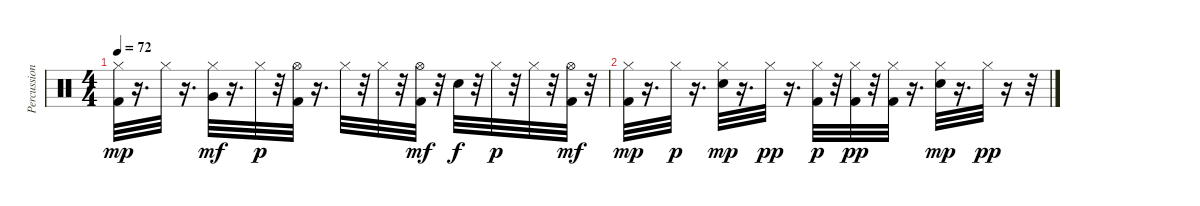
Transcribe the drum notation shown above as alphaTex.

\track ("Percussion" "Percussion") {instrument percussion}
\staff {score}
\articulation defaults
\ts (4 4)
\tempo 72
\clef neutral
\ks c
("Hi-Hat (closed)" "Kick (hit) 2").32{dy mp} r.16{d} "Hi-Hat (closed)".32 r.16{d} ("Very Low Tom (hit)" "Hi-Hat (closed)").32{dy mf} r.16{d} "Hi-Hat (closed)".32{dy p} r.32 ("Hi-Hat (open)" "Kick (hit) 2").32 r.16{d} "Hi-Hat (closed)".32 r.32 "Hi-Hat (closed)".32 r.32 ("Kick (hit) 2" "Hi-Hat (open)").32{dy mf} r.32 "Snare (hit) 2".32{dy f} r.32 "Hi-Hat (closed)".32{dy p} r.32 "Hi-Hat (closed)".32 r.32 ("Kick (hit) 2" "Hi-Hat (open)").32{dy mf} r.32 |
("Kick (hit) 2" "Hi-Hat (closed)").32{dy mp} r.16{d} "Hi-Hat (closed)".32{dy p} r.16{d} ("Snare (hit) 2" "Hi-Hat (closed)").32{dy mp} r.16{d} "Hi-Hat (closed)".32{dy pp} r.16{d} ("Kick (hit) 2" "Hi-Hat (closed)").32{dy p} r.32 ("Hi-Hat (closed)" "Kick (hit) 2").32{dy pp} r.32 ("Hi-Hat (closed)" "Kick (hit) 2").32 r.16{d} ("Hi-Hat (closed)" "Snare (hit) 2").32{dy mp} r.16{d} "Hi-Hat (closed)".32{dy pp} r.16 r.32
